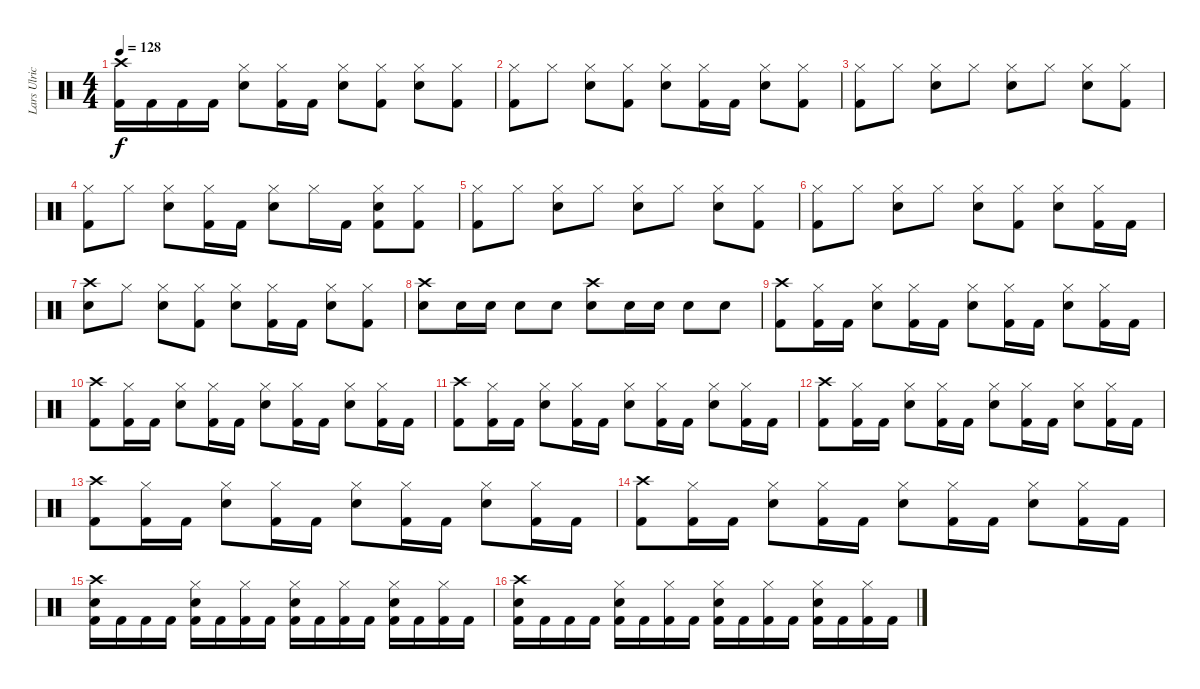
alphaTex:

\track ("Lars Ulrich" "Lars Ulric") {instrument percussion}
\staff {score}
\articulation defaults
\ts (4 4)
\tempo 128
\clef neutral
\ks c
("Crash high (hit)" "Kick (hit) 2").16{dy f} "Kick (hit) 2".16 "Kick (hit) 2".16 "Kick (hit) 2".16 ("Hi-Hat (closed)" "Electric Snare (hit)").8 ("Hi-Hat (closed)" "Kick (hit) 2").16 "Kick (hit) 2".16 ("Hi-Hat (closed)" "Electric Snare (hit)").8 ("Hi-Hat (closed)" "Kick (hit) 2").8 ("Hi-Hat (closed)" "Electric Snare (hit)").8 ("Hi-Hat (closed)" "Kick (hit) 2").8 |
("Hi-Hat (closed)" "Kick (hit) 2").8 "Hi-Hat (closed)".8 ("Hi-Hat (closed)" "Electric Snare (hit)").8 ("Hi-Hat (closed)" "Kick (hit) 2").8 ("Hi-Hat (closed)" "Electric Snare (hit)").8 ("Hi-Hat (closed)" "Kick (hit) 2").16 "Kick (hit) 2".16 ("Hi-Hat (closed)" "Electric Snare (hit)").8 ("Hi-Hat (closed)" "Kick (hit) 2").8 |
("Hi-Hat (closed)" "Kick (hit) 2").8 "Hi-Hat (closed)".8 ("Hi-Hat (closed)" "Electric Snare (hit)").8 "Hi-Hat (closed)".8 ("Hi-Hat (closed)" "Electric Snare (hit)").8 "Hi-Hat (closed)".8 ("Hi-Hat (closed)" "Electric Snare (hit)").8 ("Hi-Hat (closed)" "Kick (hit) 2").8 |
("Hi-Hat (closed)" "Kick (hit) 2").8 "Hi-Hat (closed)".8 ("Hi-Hat (closed)" "Electric Snare (hit)").8 ("Hi-Hat (closed)" "Kick (hit) 2").16 "Kick (hit) 2".16 ("Hi-Hat (closed)" "Electric Snare (hit)").8 "Hi-Hat (closed)".16 "Kick (hit) 2".16 ("Hi-Hat (closed)" "Electric Snare (hit)" "Kick (hit) 2").8 ("Hi-Hat (closed)" "Kick (hit) 2").8 |
("Hi-Hat (closed)" "Kick (hit) 2").8 "Hi-Hat (closed)".8 ("Hi-Hat (closed)" "Electric Snare (hit)").8 "Hi-Hat (closed)".8 ("Hi-Hat (closed)" "Electric Snare (hit)").8 "Hi-Hat (closed)".8 ("Hi-Hat (closed)" "Electric Snare (hit)").8 ("Hi-Hat (closed)" "Kick (hit) 2").8 |
("Hi-Hat (closed)" "Kick (hit) 2").8 "Hi-Hat (closed)".8 ("Hi-Hat (closed)" "Electric Snare (hit)").8 "Hi-Hat (closed)".8 ("Hi-Hat (closed)" "Electric Snare (hit)").8 ("Hi-Hat (closed)" "Kick (hit) 2").8 ("Hi-Hat (closed)" "Electric Snare (hit)").8 ("Hi-Hat (closed)" "Kick (hit) 2").16 "Kick (hit) 2".16 |
("Crash high (hit)" "Electric Snare (hit)").8 "Hi-Hat (closed)".8 ("Hi-Hat (closed)" "Electric Snare (hit)").8 ("Hi-Hat (closed)" "Kick (hit) 2").8 ("Hi-Hat (closed)" "Electric Snare (hit)").8 ("Hi-Hat (closed)" "Kick (hit) 2").16 "Kick (hit) 2".16 ("Hi-Hat (closed)" "Electric Snare (hit)").8 ("Hi-Hat (closed)" "Kick (hit) 2").8 |
("Crash high (hit)" "Electric Snare (hit)").8 "Electric Snare (hit)".16 "Electric Snare (hit)".16 "Electric Snare (hit)".8 "Electric Snare (hit)".8 ("Crash high (hit)" "Electric Snare (hit)").8 "Electric Snare (hit)".16 "Electric Snare (hit)".16 "Electric Snare (hit)".8 "Electric Snare (hit)".8 |
("Crash high (hit)" "Kick (hit) 2").8 ("Hi-Hat (closed)" "Kick (hit) 2").16 "Kick (hit) 2".16 ("Hi-Hat (closed)" "Electric Snare (hit)").8 ("Hi-Hat (closed)" "Kick (hit) 2").16 "Kick (hit) 2".16 ("Hi-Hat (closed)" "Electric Snare (hit)").8 ("Hi-Hat (closed)" "Kick (hit) 2").16 "Kick (hit) 2".16 ("Hi-Hat (closed)" "Electric Snare (hit)").8 ("Hi-Hat (closed)" "Kick (hit) 2").16 "Kick (hit) 2".16 |
("Crash high (hit)" "Kick (hit) 2").8 ("Hi-Hat (closed)" "Kick (hit) 2").16 "Kick (hit) 2".16 ("Hi-Hat (closed)" "Electric Snare (hit)").8 ("Hi-Hat (closed)" "Kick (hit) 2").16 "Kick (hit) 2".16 ("Hi-Hat (closed)" "Electric Snare (hit)").8 ("Hi-Hat (closed)" "Kick (hit) 2").16 "Kick (hit) 2".16 ("Hi-Hat (closed)" "Electric Snare (hit)").8 ("Hi-Hat (closed)" "Kick (hit) 2").16 "Kick (hit) 2".16 |
("Crash high (hit)" "Kick (hit) 2").8 ("Hi-Hat (closed)" "Kick (hit) 2").16 "Kick (hit) 2".16 ("Hi-Hat (closed)" "Electric Snare (hit)").8 ("Hi-Hat (closed)" "Kick (hit) 2").16 "Kick (hit) 2".16 ("Hi-Hat (closed)" "Electric Snare (hit)").8 ("Hi-Hat (closed)" "Kick (hit) 2").16 "Kick (hit) 2".16 ("Hi-Hat (closed)" "Electric Snare (hit)").8 ("Hi-Hat (closed)" "Kick (hit) 2").16 "Kick (hit) 2".16 |
("Crash high (hit)" "Kick (hit) 2").8 ("Hi-Hat (closed)" "Kick (hit) 2").16 "Kick (hit) 2".16 ("Hi-Hat (closed)" "Electric Snare (hit)").8 ("Hi-Hat (closed)" "Kick (hit) 2").16 "Kick (hit) 2".16 ("Hi-Hat (closed)" "Electric Snare (hit)").8 ("Hi-Hat (closed)" "Kick (hit) 2").16 "Kick (hit) 2".16 ("Hi-Hat (closed)" "Electric Snare (hit)").8 ("Hi-Hat (closed)" "Kick (hit) 2").16 "Kick (hit) 2".16 |
("Crash high (hit)" "Kick (hit) 2").8 ("Hi-Hat (closed)" "Kick (hit) 2").16 "Kick (hit) 2".16 ("Hi-Hat (closed)" "Electric Snare (hit)").8 ("Hi-Hat (closed)" "Kick (hit) 2").16 "Kick (hit) 2".16 ("Hi-Hat (closed)" "Electric Snare (hit)").8 ("Hi-Hat (closed)" "Kick (hit) 2").16 "Kick (hit) 2".16 ("Hi-Hat (closed)" "Electric Snare (hit)").8 ("Hi-Hat (closed)" "Kick (hit) 2").16 "Kick (hit) 2".16 |
("Crash high (hit)" "Kick (hit) 2").8 ("Hi-Hat (closed)" "Kick (hit) 2").16 "Kick (hit) 2".16 ("Hi-Hat (closed)" "Electric Snare (hit)").8 ("Hi-Hat (closed)" "Kick (hit) 2").16 "Kick (hit) 2".16 ("Hi-Hat (closed)" "Electric Snare (hit)").8 ("Hi-Hat (closed)" "Kick (hit) 2").16 "Kick (hit) 2".16 ("Hi-Hat (closed)" "Electric Snare (hit)").8 ("Hi-Hat (closed)" "Kick (hit) 2").16 "Kick (hit) 2".16 |
("Crash high (hit)" "Electric Snare (hit)" "Kick (hit) 2").16 "Kick (hit) 2".16 "Kick (hit) 2".16 "Kick (hit) 2".16 ("Hi-Hat (closed)" "Electric Snare (hit)" "Kick (hit) 2").16 "Kick (hit) 2".16 ("Hi-Hat (closed)" "Kick (hit) 2").16 "Kick (hit) 2".16 ("Hi-Hat (closed)" "Electric Snare (hit)" "Kick (hit) 2").16 "Kick (hit) 2".16 ("Hi-Hat (closed)" "Kick (hit) 2").16 "Kick (hit) 2".16 ("Hi-Hat (closed)" "Electric Snare (hit)" "Kick (hit) 2").16 "Kick (hit) 2".16 ("Hi-Hat (closed)" "Kick (hit) 2").16 "Kick (hit) 2".16 |
("Crash high (hit)" "Electric Snare (hit)" "Kick (hit) 2").16 "Kick (hit) 2".16 "Kick (hit) 2".16 "Kick (hit) 2".16 ("Hi-Hat (closed)" "Electric Snare (hit)" "Kick (hit) 2").16 "Kick (hit) 2".16 ("Hi-Hat (closed)" "Kick (hit) 2").16 "Kick (hit) 2".16 ("Hi-Hat (closed)" "Electric Snare (hit)" "Kick (hit) 2").16 "Kick (hit) 2".16 ("Hi-Hat (closed)" "Kick (hit) 2").16 "Kick (hit) 2".16 ("Hi-Hat (closed)" "Electric Snare (hit)" "Kick (hit) 2").16 "Kick (hit) 2".16 ("Hi-Hat (closed)" "Kick (hit) 2").16 "Kick (hit) 2".16
